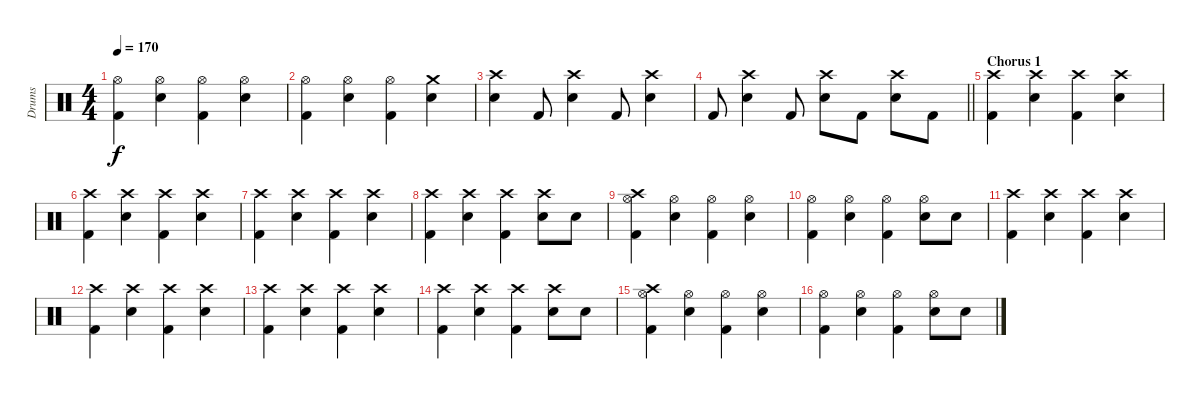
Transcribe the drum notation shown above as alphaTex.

\track ("Drums" "Drums") {instrument percussion}
\staff {score}
\articulation defaults
\ts (4 4)
\tempo 170
\clef neutral
\ks c
("Hi-Hat (open)" "Kick (hit) 2").4{dy f} ("Hi-Hat (open)" "Electric Snare (hit)").4 ("Hi-Hat (open)" "Kick (hit) 2").4 ("Hi-Hat (open)" "Electric Snare (hit)").4 |
("Hi-Hat (open)" "Kick (hit) 2").4 ("Hi-Hat (open)" "Electric Snare (hit)").4 ("Hi-Hat (open)" "Kick (hit) 2").4 ("Crash medium (hit)" "Electric Snare (hit)").4 |
("Crash high (hit)" "Electric Snare (hit)").4 "Kick (hit) 2".8 ("Crash high (hit)" "Electric Snare (hit)").4 "Kick (hit) 2".8 ("Crash high (hit)" "Electric Snare (hit)").4 |
\barLineRight lightlight "Kick (hit) 2".8
("Crash high (hit)" "Electric Snare (hit)").4 "Kick (hit) 2".8 ("Crash high (hit)" "Electric Snare (hit)").8 "Kick (hit) 2".8 ("Crash high (hit)" "Electric Snare (hit)").8 "Kick (hit) 2".8 |
\section ("" "Chorus 1")
("Crash high (hit)" "Kick (hit) 2").4 ("Crash high (hit)" "Electric Snare (hit)").4 ("Crash high (hit)" "Kick (hit) 2").4 ("Crash high (hit)" "Electric Snare (hit)").4 |
("Crash high (hit)" "Kick (hit) 2").4 ("Crash high (hit)" "Electric Snare (hit)").4 ("Crash high (hit)" "Kick (hit) 2").4 ("Crash high (hit)" "Electric Snare (hit)").4 |
("Crash high (hit)" "Kick (hit) 2").4 ("Crash high (hit)" "Electric Snare (hit)").4 ("Crash high (hit)" "Kick (hit) 2").4 ("Crash high (hit)" "Electric Snare (hit)").4 |
("Crash high (hit)" "Kick (hit) 2").4 ("Crash high (hit)" "Electric Snare (hit)").4 ("Crash high (hit)" "Kick (hit) 2").4 ("Crash high (hit)" "Electric Snare (hit)").8 "Electric Snare (hit)".8 |
("Crash high (hit)" "Hi-Hat (open)" "Kick (hit) 2").4 ("Hi-Hat (open)" "Electric Snare (hit)").4 ("Hi-Hat (open)" "Kick (hit) 2").4 ("Hi-Hat (open)" "Electric Snare (hit)").4 |
("Hi-Hat (open)" "Kick (hit) 2").4 ("Hi-Hat (open)" "Electric Snare (hit)").4 ("Hi-Hat (open)" "Kick (hit) 2").4 ("Hi-Hat (open)" "Electric Snare (hit)").8 "Electric Snare (hit)".8 |
("Crash high (hit)" "Kick (hit) 2").4 ("Crash high (hit)" "Electric Snare (hit)").4 ("Crash high (hit)" "Kick (hit) 2").4 ("Crash high (hit)" "Electric Snare (hit)").4 |
("Crash high (hit)" "Kick (hit) 2").4 ("Crash high (hit)" "Electric Snare (hit)").4 ("Crash high (hit)" "Kick (hit) 2").4 ("Crash high (hit)" "Electric Snare (hit)").4 |
("Crash high (hit)" "Kick (hit) 2").4 ("Crash high (hit)" "Electric Snare (hit)").4 ("Crash high (hit)" "Kick (hit) 2").4 ("Crash high (hit)" "Electric Snare (hit)").4 |
("Crash high (hit)" "Kick (hit) 2").4 ("Crash high (hit)" "Electric Snare (hit)").4 ("Crash high (hit)" "Kick (hit) 2").4 ("Crash high (hit)" "Electric Snare (hit)").8 "Electric Snare (hit)".8 |
("Crash high (hit)" "Hi-Hat (open)" "Kick (hit) 2").4 ("Hi-Hat (open)" "Electric Snare (hit)").4 ("Hi-Hat (open)" "Kick (hit) 2").4 ("Hi-Hat (open)" "Electric Snare (hit)").4 |
("Hi-Hat (open)" "Kick (hit) 2").4 ("Hi-Hat (open)" "Electric Snare (hit)").4 ("Hi-Hat (open)" "Kick (hit) 2").4 ("Hi-Hat (open)" "Electric Snare (hit)").8 "Electric Snare (hit)".8
